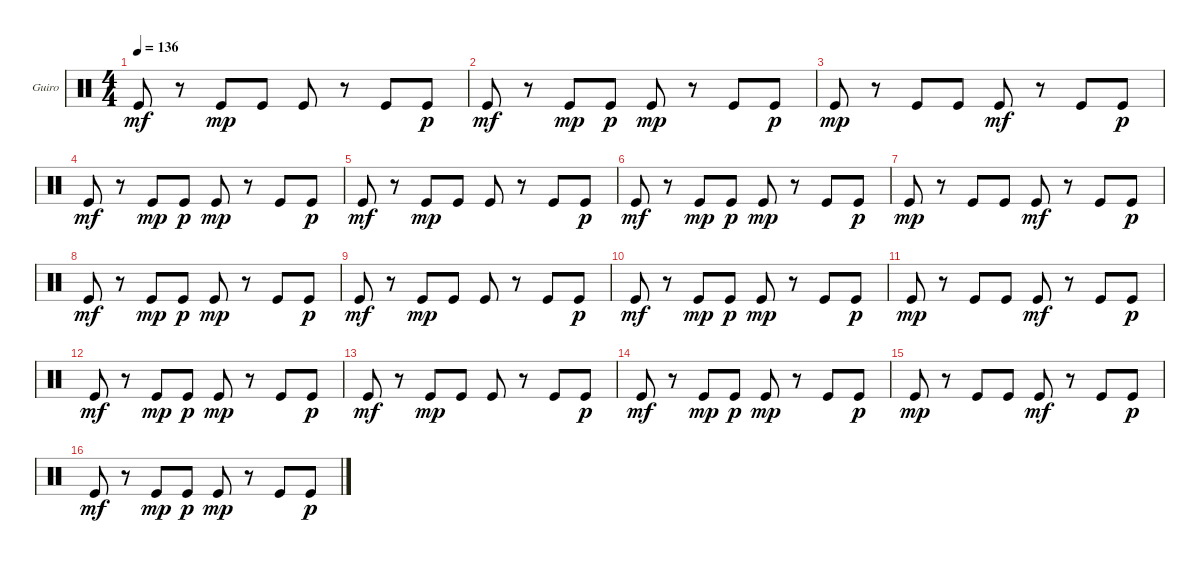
\bracketExtendMode groupsimilarinstruments
\firstSystemTrackNameOrientation horizontal
\otherSystemsTrackNameOrientation horizontal
\track ("Guiro" "Guiro") {instrument percussion}
\staff {score}
\articulation defaults
\ts (4 4)
\tempo 136
\clef neutral
\ks c "Kick (hit)".8{dy mf}
r.8 "Kick (hit)".8{dy mp} "Kick (hit)".8 "Kick (hit)".8 r.8 "Kick (hit)".8 "Kick (hit)".8{dy p} |
"Kick (hit)".8{dy mf} r.8 "Kick (hit)".8{dy mp} "Kick (hit)".8{dy p} "Kick (hit)".8{dy mp} r.8 "Kick (hit)".8 "Kick (hit)".8{dy p} |
"Kick (hit)".8{dy mp} r.8 "Kick (hit)".8 "Kick (hit)".8 "Kick (hit)".8{dy mf} r.8 "Kick (hit)".8 "Kick (hit)".8{dy p} |
"Kick (hit)".8{dy mf} r.8 "Kick (hit)".8{dy mp} "Kick (hit)".8{dy p} "Kick (hit)".8{dy mp} r.8 "Kick (hit)".8 "Kick (hit)".8{dy p} |
"Kick (hit)".8{dy mf} r.8 "Kick (hit)".8{dy mp} "Kick (hit)".8 "Kick (hit)".8 r.8 "Kick (hit)".8 "Kick (hit)".8{dy p} |
"Kick (hit)".8{dy mf} r.8 "Kick (hit)".8{dy mp} "Kick (hit)".8{dy p} "Kick (hit)".8{dy mp} r.8 "Kick (hit)".8 "Kick (hit)".8{dy p} |
"Kick (hit)".8{dy mp} r.8 "Kick (hit)".8 "Kick (hit)".8 "Kick (hit)".8{dy mf} r.8 "Kick (hit)".8 "Kick (hit)".8{dy p} |
"Kick (hit)".8{dy mf} r.8 "Kick (hit)".8{dy mp} "Kick (hit)".8{dy p} "Kick (hit)".8{dy mp} r.8 "Kick (hit)".8 "Kick (hit)".8{dy p} |
"Kick (hit)".8{dy mf} r.8 "Kick (hit)".8{dy mp} "Kick (hit)".8 "Kick (hit)".8 r.8 "Kick (hit)".8 "Kick (hit)".8{dy p} |
"Kick (hit)".8{dy mf} r.8 "Kick (hit)".8{dy mp} "Kick (hit)".8{dy p} "Kick (hit)".8{dy mp} r.8 "Kick (hit)".8 "Kick (hit)".8{dy p} |
"Kick (hit)".8{dy mp} r.8 "Kick (hit)".8 "Kick (hit)".8 "Kick (hit)".8{dy mf} r.8 "Kick (hit)".8 "Kick (hit)".8{dy p} |
"Kick (hit)".8{dy mf} r.8 "Kick (hit)".8{dy mp} "Kick (hit)".8{dy p} "Kick (hit)".8{dy mp} r.8 "Kick (hit)".8 "Kick (hit)".8{dy p} |
"Kick (hit)".8{dy mf} r.8 "Kick (hit)".8{dy mp} "Kick (hit)".8 "Kick (hit)".8 r.8 "Kick (hit)".8 "Kick (hit)".8{dy p} |
"Kick (hit)".8{dy mf} r.8 "Kick (hit)".8{dy mp} "Kick (hit)".8{dy p} "Kick (hit)".8{dy mp} r.8 "Kick (hit)".8 "Kick (hit)".8{dy p} |
"Kick (hit)".8{dy mp} r.8 "Kick (hit)".8 "Kick (hit)".8 "Kick (hit)".8{dy mf} r.8 "Kick (hit)".8 "Kick (hit)".8{dy p} |
"Kick (hit)".8{dy mf} r.8 "Kick (hit)".8{dy mp} "Kick (hit)".8{dy p} "Kick (hit)".8{dy mp} r.8 "Kick (hit)".8 "Kick (hit)".8{dy p}
